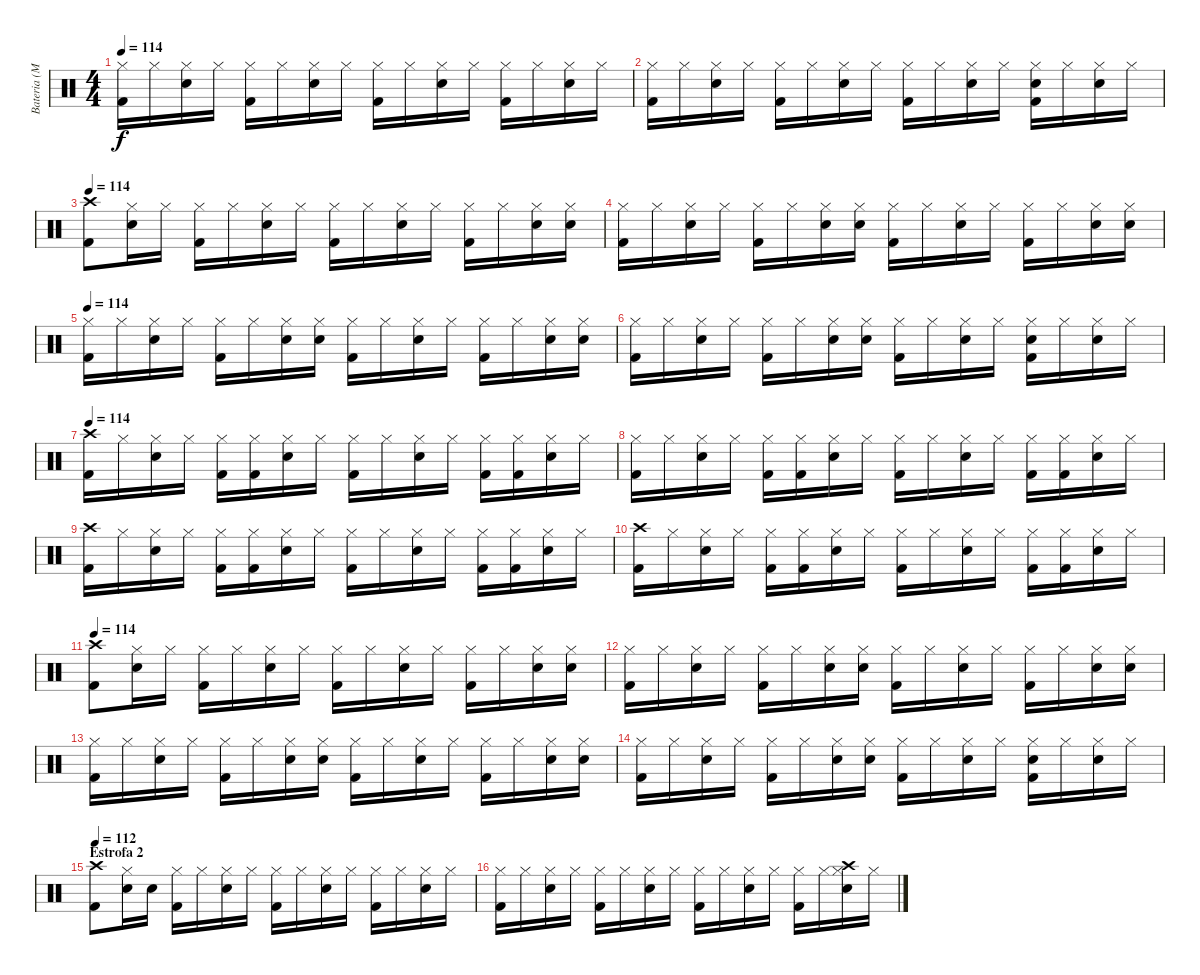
\track ("Bateria (Marcelo)" "Bateria (M") {instrument percussion}
\staff {score}
\articulation defaults
\ts (4 4)
\tempo 114
\clef neutral
\ks c
("Kick (hit) 2" "Hi-Hat (closed)").16{dy f} "Hi-Hat (closed)".16 ("Snare (hit) 2" "Hi-Hat (closed)").16 "Hi-Hat (closed)".16 ("Kick (hit) 2" "Hi-Hat (closed)").16 "Hi-Hat (closed)".16 ("Snare (hit) 2" "Hi-Hat (closed)").16 "Hi-Hat (closed)".16 ("Kick (hit) 2" "Hi-Hat (closed)").16 "Hi-Hat (closed)".16 ("Snare (hit) 2" "Hi-Hat (closed)").16 "Hi-Hat (closed)".16 ("Kick (hit) 2" "Hi-Hat (closed)").16 "Hi-Hat (closed)".16 ("Snare (hit) 2" "Hi-Hat (closed)").16 "Hi-Hat (closed)".16 |
("Kick (hit) 2" "Hi-Hat (closed)").16 "Hi-Hat (closed)".16 ("Snare (hit) 2" "Hi-Hat (closed)").16 "Hi-Hat (closed)".16 ("Kick (hit) 2" "Hi-Hat (closed)").16 "Hi-Hat (closed)".16 ("Snare (hit) 2" "Hi-Hat (closed)").16 "Hi-Hat (closed)".16 ("Kick (hit) 2" "Hi-Hat (closed)").16 "Hi-Hat (closed)".16 ("Snare (hit) 2" "Hi-Hat (closed)").16 "Hi-Hat (closed)".16 ("Kick (hit) 2" "Hi-Hat (closed)" "Snare (hit) 2").16 "Hi-Hat (closed)".16 ("Snare (hit) 2" "Hi-Hat (closed)").16 "Hi-Hat (closed)".16 |
\tempo 114
("Kick (hit) 2" "Crash high (hit)").8{volume 13} ("Snare (hit) 2" "Hi-Hat (closed)").16 "Hi-Hat (closed)".16 ("Kick (hit) 2" "Hi-Hat (closed)").16 "Hi-Hat (closed)".16 ("Snare (hit) 2" "Hi-Hat (closed)").16 "Hi-Hat (closed)".16 ("Kick (hit) 2" "Hi-Hat (closed)").16 "Hi-Hat (closed)".16 ("Snare (hit) 2" "Hi-Hat (closed)").16 "Hi-Hat (closed)".16 ("Kick (hit) 2" "Hi-Hat (closed)").16 "Hi-Hat (closed)".16 ("Snare (hit) 2" "Hi-Hat (closed)").16 ("Snare (hit) 2" "Hi-Hat (closed)").16 |
("Kick (hit) 2" "Hi-Hat (closed)").16 "Hi-Hat (closed)".16 ("Snare (hit) 2" "Hi-Hat (closed)").16 "Hi-Hat (closed)".16 ("Kick (hit) 2" "Hi-Hat (closed)").16 "Hi-Hat (closed)".16 ("Snare (hit) 2" "Hi-Hat (closed)").16 ("Snare (hit) 2" "Hi-Hat (closed)").16 ("Kick (hit) 2" "Hi-Hat (closed)").16 "Hi-Hat (closed)".16 ("Snare (hit) 2" "Hi-Hat (closed)").16 "Hi-Hat (closed)".16 ("Kick (hit) 2" "Hi-Hat (closed)").16 "Hi-Hat (closed)".16 ("Snare (hit) 2" "Hi-Hat (closed)").16 ("Snare (hit) 2" "Hi-Hat (closed)").16 |
\tempo 114
("Kick (hit) 2" "Hi-Hat (closed)").16{volume 13} "Hi-Hat (closed)".16 ("Snare (hit) 2" "Hi-Hat (closed)").16 "Hi-Hat (closed)".16 ("Kick (hit) 2" "Hi-Hat (closed)").16 "Hi-Hat (closed)".16 ("Snare (hit) 2" "Hi-Hat (closed)").16 ("Snare (hit) 2" "Hi-Hat (closed)").16 ("Kick (hit) 2" "Hi-Hat (closed)").16 "Hi-Hat (closed)".16 ("Snare (hit) 2" "Hi-Hat (closed)").16 "Hi-Hat (closed)".16 ("Kick (hit) 2" "Hi-Hat (closed)").16 "Hi-Hat (closed)".16 ("Snare (hit) 2" "Hi-Hat (closed)").16 ("Snare (hit) 2" "Hi-Hat (closed)").16 |
("Kick (hit) 2" "Hi-Hat (closed)").16 "Hi-Hat (closed)".16 ("Snare (hit) 2" "Hi-Hat (closed)").16 "Hi-Hat (closed)".16 ("Kick (hit) 2" "Hi-Hat (closed)").16 "Hi-Hat (closed)".16 ("Snare (hit) 2" "Hi-Hat (closed)").16 ("Snare (hit) 2" "Hi-Hat (closed)").16 ("Kick (hit) 2" "Hi-Hat (closed)").16 "Hi-Hat (closed)".16 ("Snare (hit) 2" "Hi-Hat (closed)").16 "Hi-Hat (closed)".16 ("Kick (hit) 2" "Hi-Hat (closed)" "Snare (hit) 2").16 "Hi-Hat (closed)".16 ("Snare (hit) 2" "Hi-Hat (closed)").16 "Hi-Hat (closed)".16 |
\tempo 114
("Kick (hit) 2" "Crash high (hit)").16{volume 13} "Hi-Hat (closed)".16 ("Snare (hit) 2" "Hi-Hat (closed)").16 "Hi-Hat (closed)".16 ("Kick (hit) 2" "Hi-Hat (closed)").16 ("Kick (hit) 2" "Hi-Hat (closed)").16 ("Snare (hit) 2" "Hi-Hat (closed)").16 "Hi-Hat (closed)".16 ("Kick (hit) 2" "Hi-Hat (closed)").16 "Hi-Hat (closed)".16 ("Snare (hit) 2" "Hi-Hat (closed)").16 "Hi-Hat (closed)".16 ("Kick (hit) 2" "Hi-Hat (closed)").16 ("Kick (hit) 2" "Hi-Hat (closed)").16 ("Snare (hit) 2" "Hi-Hat (closed)").16 "Hi-Hat (closed)".16 |
("Kick (hit) 2" "Hi-Hat (closed)").16 "Hi-Hat (closed)".16 ("Snare (hit) 2" "Hi-Hat (closed)").16 "Hi-Hat (closed)".16 ("Kick (hit) 2" "Hi-Hat (closed)").16 ("Kick (hit) 2" "Hi-Hat (closed)").16 ("Snare (hit) 2" "Hi-Hat (closed)").16 "Hi-Hat (closed)".16 ("Kick (hit) 2" "Hi-Hat (closed)").16 "Hi-Hat (closed)".16 ("Snare (hit) 2" "Hi-Hat (closed)").16 "Hi-Hat (closed)".16 ("Kick (hit) 2" "Hi-Hat (closed)").16 ("Kick (hit) 2" "Hi-Hat (closed)").16 ("Snare (hit) 2" "Hi-Hat (closed)").16 "Hi-Hat (closed)".16 |
("Kick (hit) 2" "Crash high (hit)").16 "Hi-Hat (closed)".16 ("Snare (hit) 2" "Hi-Hat (closed)").16 "Hi-Hat (closed)".16 ("Kick (hit) 2" "Hi-Hat (closed)").16 ("Kick (hit) 2" "Hi-Hat (closed)").16 ("Snare (hit) 2" "Hi-Hat (closed)").16 "Hi-Hat (closed)".16 ("Kick (hit) 2" "Hi-Hat (closed)").16 "Hi-Hat (closed)".16 ("Snare (hit) 2" "Hi-Hat (closed)").16 "Hi-Hat (closed)".16 ("Kick (hit) 2" "Hi-Hat (closed)").16 ("Kick (hit) 2" "Hi-Hat (closed)").16 ("Snare (hit) 2" "Hi-Hat (closed)").16 "Hi-Hat (closed)".16 |
("Kick (hit) 2" "Crash high (hit)").16 "Hi-Hat (closed)".16 ("Snare (hit) 2" "Hi-Hat (closed)").16 "Hi-Hat (closed)".16 ("Kick (hit) 2" "Hi-Hat (closed)").16 ("Kick (hit) 2" "Hi-Hat (closed)").16 ("Snare (hit) 2" "Hi-Hat (closed)").16 "Hi-Hat (closed)".16 ("Kick (hit) 2" "Hi-Hat (closed)").16 "Hi-Hat (closed)".16 ("Snare (hit) 2" "Hi-Hat (closed)").16 "Hi-Hat (closed)".16 ("Kick (hit) 2" "Hi-Hat (closed)").16 ("Kick (hit) 2" "Hi-Hat (closed)").16 ("Snare (hit) 2" "Hi-Hat (closed)").16 "Hi-Hat (closed)".16 |
\tempo 114
("Kick (hit) 2" "Crash high (hit)").8{volume 13} ("Snare (hit) 2" "Hi-Hat (closed)").16 "Hi-Hat (closed)".16 ("Kick (hit) 2" "Hi-Hat (closed)").16 "Hi-Hat (closed)".16 ("Snare (hit) 2" "Hi-Hat (closed)").16 "Hi-Hat (closed)".16 ("Kick (hit) 2" "Hi-Hat (closed)").16 "Hi-Hat (closed)".16 ("Snare (hit) 2" "Hi-Hat (closed)").16 "Hi-Hat (closed)".16 ("Kick (hit) 2" "Hi-Hat (closed)").16 "Hi-Hat (closed)".16 ("Snare (hit) 2" "Hi-Hat (closed)").16 ("Snare (hit) 2" "Hi-Hat (closed)").16 |
("Kick (hit) 2" "Hi-Hat (closed)").16 "Hi-Hat (closed)".16 ("Snare (hit) 2" "Hi-Hat (closed)").16 "Hi-Hat (closed)".16 ("Kick (hit) 2" "Hi-Hat (closed)").16 "Hi-Hat (closed)".16 ("Snare (hit) 2" "Hi-Hat (closed)").16 ("Snare (hit) 2" "Hi-Hat (closed)").16 ("Kick (hit) 2" "Hi-Hat (closed)").16 "Hi-Hat (closed)".16 ("Snare (hit) 2" "Hi-Hat (closed)").16 "Hi-Hat (closed)".16 ("Kick (hit) 2" "Hi-Hat (closed)").16 "Hi-Hat (closed)".16 ("Snare (hit) 2" "Hi-Hat (closed)").16 ("Snare (hit) 2" "Hi-Hat (closed)").16 |
("Kick (hit) 2" "Hi-Hat (closed)").16 "Hi-Hat (closed)".16 ("Snare (hit) 2" "Hi-Hat (closed)").16 "Hi-Hat (closed)".16 ("Kick (hit) 2" "Hi-Hat (closed)").16 "Hi-Hat (closed)".16 ("Snare (hit) 2" "Hi-Hat (closed)").16 ("Snare (hit) 2" "Hi-Hat (closed)").16 ("Kick (hit) 2" "Hi-Hat (closed)").16 "Hi-Hat (closed)".16 ("Snare (hit) 2" "Hi-Hat (closed)").16 "Hi-Hat (closed)".16 ("Kick (hit) 2" "Hi-Hat (closed)").16 "Hi-Hat (closed)".16 ("Snare (hit) 2" "Hi-Hat (closed)").16 ("Snare (hit) 2" "Hi-Hat (closed)").16 |
("Kick (hit) 2" "Hi-Hat (closed)").16 "Hi-Hat (closed)".16 ("Snare (hit) 2" "Hi-Hat (closed)").16 "Hi-Hat (closed)".16 ("Kick (hit) 2" "Hi-Hat (closed)").16 "Hi-Hat (closed)".16 ("Snare (hit) 2" "Hi-Hat (closed)").16 ("Snare (hit) 2" "Hi-Hat (closed)").16 ("Kick (hit) 2" "Hi-Hat (closed)").16 "Hi-Hat (closed)".16 ("Snare (hit) 2" "Hi-Hat (closed)").16 "Hi-Hat (closed)".16 ("Kick (hit) 2" "Hi-Hat (closed)" "Snare (hit) 2").16 "Hi-Hat (closed)".16 ("Snare (hit) 2" "Hi-Hat (closed)").16 "Hi-Hat (closed)".16 |
\section ("" "Estrofa 2")
\tempo 112
("Kick (hit) 2" "Crash high (hit)").8{volume 9} ("Snare (hit) 2" "Hi-Hat (closed)").16 "Snare (hit)".16 ("Kick (hit) 2" "Hi-Hat (closed)").16 "Hi-Hat (closed)".16 ("Snare (hit) 2" "Hi-Hat (closed)").16 "Hi-Hat (closed)".16 ("Kick (hit) 2" "Hi-Hat (closed)").16 "Hi-Hat (closed)".16 ("Snare (hit) 2" "Hi-Hat (closed)").16 "Hi-Hat (closed)".16 ("Kick (hit) 2" "Hi-Hat (closed)").16 "Hi-Hat (closed)".16 ("Snare (hit) 2" "Hi-Hat (closed)").16 "Hi-Hat (closed)".16 |
("Kick (hit) 2" "Hi-Hat (closed)").16 "Hi-Hat (closed)".16 ("Snare (hit) 2" "Hi-Hat (closed)").16 "Hi-Hat (closed)".16 ("Kick (hit) 2" "Hi-Hat (closed)").16 "Hi-Hat (closed)".16 ("Snare (hit) 2" "Hi-Hat (closed)").16 "Hi-Hat (closed)".16 ("Kick (hit) 2" "Hi-Hat (closed)").16 "Hi-Hat (closed)".16 ("Snare (hit) 2" "Hi-Hat (closed)").16 "Hi-Hat (closed)".16 ("Kick (hit) 2" "Hi-Hat (closed)").16 "Hi-Hat (closed)".16 ("Snare (hit) 2" "Hi-Hat (closed)" "Crash high (hit)").16 "Hi-Hat (closed)".16
